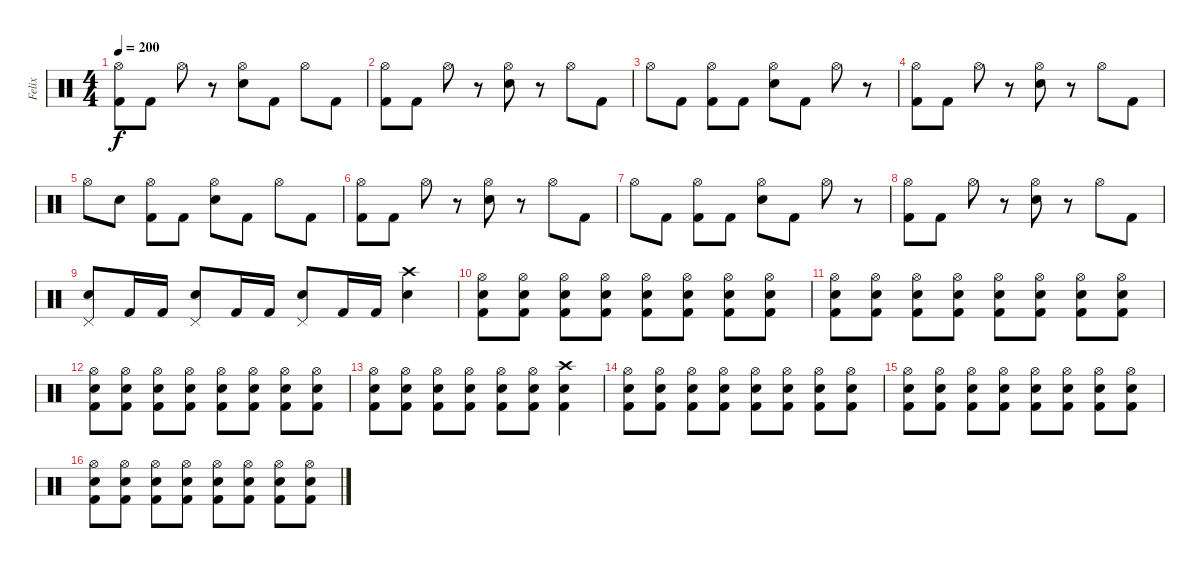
\track ("Felix" "Felix") {instrument percussion}
\staff {score}
\articulation defaults
\ts (4 4)
\tempo 200
\clef neutral
\ks c
("Hi-Hat (open)" "Kick (hit) 2").8{dy f} "Kick (hit) 2".8 "Hi-Hat (open)".8 r.8 ("Hi-Hat (open)" "Electric Snare (hit)").8 "Kick (hit) 2".8 "Hi-Hat (open)".8 "Kick (hit) 2".8 |
("Hi-Hat (open)" "Kick (hit) 2").8 "Kick (hit) 2".8 "Hi-Hat (open)".8 r.8 ("Hi-Hat (open)" "Electric Snare (hit)").8 r.8 "Hi-Hat (open)".8 "Kick (hit) 2".8 |
"Hi-Hat (open)".8 "Kick (hit) 2".8 ("Hi-Hat (open)" "Kick (hit) 2").8 "Kick (hit) 2".8 ("Hi-Hat (open)" "Electric Snare (hit)").8 "Kick (hit) 2".8 "Hi-Hat (open)".8 r.8 |
("Hi-Hat (open)" "Kick (hit) 2").8 "Kick (hit) 2".8 "Hi-Hat (open)".8 r.8 ("Hi-Hat (open)" "Electric Snare (hit)").8 r.8 "Hi-Hat (open)".8 "Kick (hit) 2".8 |
"Hi-Hat (open)".8 "Electric Snare (hit)".8 ("Hi-Hat (open)" "Kick (hit) 2").8 "Kick (hit) 2".8 ("Hi-Hat (open)" "Electric Snare (hit)").8 "Kick (hit) 2".8 "Hi-Hat (open)".8 "Kick (hit) 2".8 |
("Hi-Hat (open)" "Kick (hit) 2").8 "Kick (hit) 2".8 "Hi-Hat (open)".8 r.8 ("Hi-Hat (open)" "Electric Snare (hit)").8 r.8 "Hi-Hat (open)".8 "Kick (hit) 2".8 |
"Hi-Hat (open)".8 "Kick (hit) 2".8 ("Hi-Hat (open)" "Kick (hit) 2").8 "Kick (hit) 2".8 ("Hi-Hat (open)" "Electric Snare (hit)").8 "Kick (hit) 2".8 "Hi-Hat (open)".8 r.8 |
("Hi-Hat (open)" "Kick (hit) 2").8 "Kick (hit) 2".8 "Hi-Hat (open)".8 r.8 ("Hi-Hat (open)" "Electric Snare (hit)").8 r.8 "Hi-Hat (open)".8 "Kick (hit) 2".8 |
("Pedal Hi-Hat (hit)" "Electric Snare (hit)").8 "Kick (hit) 2".16 "Kick (hit) 2".16 ("Pedal Hi-Hat (hit)" "Electric Snare (hit)").8 "Kick (hit) 2".16 "Kick (hit) 2".16 ("Pedal Hi-Hat (hit)" "Electric Snare (hit)").8 "Kick (hit) 2".16 "Kick (hit) 2".16 ("Crash high (hit)" "Electric Snare (hit)").4 |
("Hi-Hat (open)" "Electric Snare (hit)" "Kick (hit) 2").8 ("Hi-Hat (open)" "Electric Snare (hit)" "Kick (hit) 2").8 ("Hi-Hat (open)" "Electric Snare (hit)" "Kick (hit) 2").8 ("Hi-Hat (open)" "Electric Snare (hit)" "Kick (hit) 2").8 ("Hi-Hat (open)" "Electric Snare (hit)" "Kick (hit) 2").8 ("Hi-Hat (open)" "Electric Snare (hit)" "Kick (hit) 2").8 ("Hi-Hat (open)" "Electric Snare (hit)" "Kick (hit) 2").8 ("Hi-Hat (open)" "Electric Snare (hit)" "Kick (hit) 2").8 |
("Hi-Hat (open)" "Electric Snare (hit)" "Kick (hit) 2").8 ("Hi-Hat (open)" "Electric Snare (hit)" "Kick (hit) 2").8 ("Hi-Hat (open)" "Electric Snare (hit)" "Kick (hit) 2").8 ("Hi-Hat (open)" "Electric Snare (hit)" "Kick (hit) 2").8 ("Hi-Hat (open)" "Electric Snare (hit)" "Kick (hit) 2").8 ("Hi-Hat (open)" "Electric Snare (hit)" "Kick (hit) 2").8 ("Hi-Hat (open)" "Electric Snare (hit)" "Kick (hit) 2").8 ("Hi-Hat (open)" "Electric Snare (hit)" "Kick (hit) 2").8 |
("Hi-Hat (open)" "Electric Snare (hit)" "Kick (hit) 2").8 ("Hi-Hat (open)" "Electric Snare (hit)" "Kick (hit) 2").8 ("Hi-Hat (open)" "Electric Snare (hit)" "Kick (hit) 2").8 ("Hi-Hat (open)" "Electric Snare (hit)" "Kick (hit) 2").8 ("Hi-Hat (open)" "Electric Snare (hit)" "Kick (hit) 2").8 ("Hi-Hat (open)" "Electric Snare (hit)" "Kick (hit) 2").8 ("Hi-Hat (open)" "Electric Snare (hit)" "Kick (hit) 2").8 ("Hi-Hat (open)" "Electric Snare (hit)" "Kick (hit) 2").8 |
("Hi-Hat (open)" "Electric Snare (hit)" "Kick (hit) 2").8 ("Hi-Hat (open)" "Electric Snare (hit)" "Kick (hit) 2").8 ("Hi-Hat (open)" "Electric Snare (hit)" "Kick (hit) 2").8 ("Hi-Hat (open)" "Electric Snare (hit)" "Kick (hit) 2").8 ("Hi-Hat (open)" "Electric Snare (hit)" "Kick (hit) 2").8 ("Hi-Hat (open)" "Electric Snare (hit)" "Kick (hit) 2").8 ("Crash high (hit)" "Electric Snare (hit)" "Kick (hit) 2").4 |
("Hi-Hat (open)" "Electric Snare (hit)" "Kick (hit) 2").8 ("Hi-Hat (open)" "Electric Snare (hit)" "Kick (hit) 2").8 ("Hi-Hat (open)" "Electric Snare (hit)" "Kick (hit) 2").8 ("Hi-Hat (open)" "Electric Snare (hit)" "Kick (hit) 2").8 ("Hi-Hat (open)" "Electric Snare (hit)" "Kick (hit) 2").8 ("Hi-Hat (open)" "Electric Snare (hit)" "Kick (hit) 2").8 ("Hi-Hat (open)" "Electric Snare (hit)" "Kick (hit) 2").8 ("Hi-Hat (open)" "Electric Snare (hit)" "Kick (hit) 2").8 |
("Hi-Hat (open)" "Electric Snare (hit)" "Kick (hit) 2").8 ("Hi-Hat (open)" "Electric Snare (hit)" "Kick (hit) 2").8 ("Hi-Hat (open)" "Electric Snare (hit)" "Kick (hit) 2").8 ("Hi-Hat (open)" "Electric Snare (hit)" "Kick (hit) 2").8 ("Hi-Hat (open)" "Electric Snare (hit)" "Kick (hit) 2").8 ("Hi-Hat (open)" "Electric Snare (hit)" "Kick (hit) 2").8 ("Hi-Hat (open)" "Electric Snare (hit)" "Kick (hit) 2").8 ("Hi-Hat (open)" "Electric Snare (hit)" "Kick (hit) 2").8 |
("Hi-Hat (open)" "Electric Snare (hit)" "Kick (hit) 2").8 ("Hi-Hat (open)" "Electric Snare (hit)" "Kick (hit) 2").8 ("Hi-Hat (open)" "Electric Snare (hit)" "Kick (hit) 2").8 ("Hi-Hat (open)" "Electric Snare (hit)" "Kick (hit) 2").8 ("Hi-Hat (open)" "Electric Snare (hit)" "Kick (hit) 2").8 ("Hi-Hat (open)" "Electric Snare (hit)" "Kick (hit) 2").8 ("Hi-Hat (open)" "Electric Snare (hit)" "Kick (hit) 2").8 ("Hi-Hat (open)" "Electric Snare (hit)" "Kick (hit) 2").8
